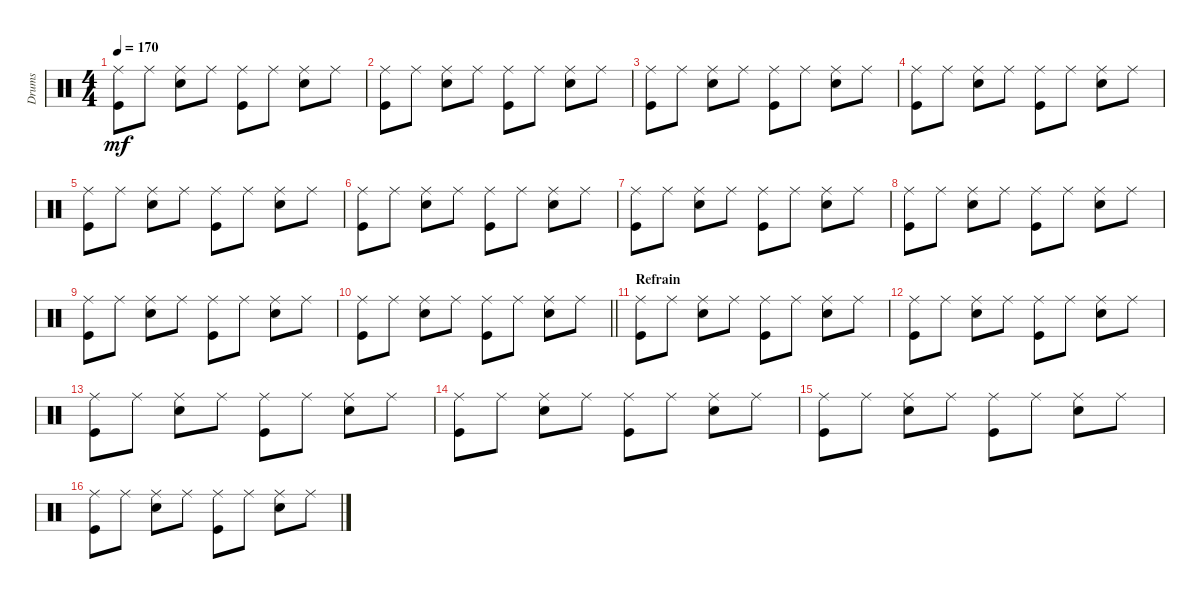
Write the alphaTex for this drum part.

\track ("Drums" "Drums") {instrument percussion}
\staff {score}
\articulation defaults
\ts (4 4)
\tempo 170
\clef neutral
\ks c
("Ride (middle)" "Kick (hit)").8{dy mf} "Ride (middle)".8 ("Ride (middle)" "Snare (hit) 2").8 "Ride (middle)".8 ("Ride (middle)" "Kick (hit)").8 "Ride (middle)".8 ("Ride (middle)" "Snare (hit) 2").8 "Ride (middle)".8 |
("Ride (middle)" "Kick (hit)").8 "Ride (middle)".8 ("Ride (middle)" "Snare (hit) 2").8 "Ride (middle)".8 ("Ride (middle)" "Kick (hit)").8 "Ride (middle)".8 ("Ride (middle)" "Snare (hit) 2").8 "Ride (middle)".8 |
("Ride (middle)" "Kick (hit)").8 "Ride (middle)".8 ("Ride (middle)" "Snare (hit) 2").8 "Ride (middle)".8 ("Ride (middle)" "Kick (hit)").8 "Ride (middle)".8 ("Ride (middle)" "Snare (hit) 2").8 "Ride (middle)".8 |
("Ride (middle)" "Kick (hit)").8 "Ride (middle)".8 ("Ride (middle)" "Snare (hit) 2").8 "Ride (middle)".8 ("Ride (middle)" "Kick (hit)").8 "Ride (middle)".8 ("Ride (middle)" "Snare (hit) 2").8 "Ride (middle)".8 |
("Ride (middle)" "Kick (hit)").8 "Ride (middle)".8 ("Ride (middle)" "Snare (hit) 2").8 "Ride (middle)".8 ("Ride (middle)" "Kick (hit)").8 "Ride (middle)".8 ("Ride (middle)" "Snare (hit) 2").8 "Ride (middle)".8 |
("Ride (middle)" "Kick (hit)").8 "Ride (middle)".8 ("Ride (middle)" "Snare (hit) 2").8 "Ride (middle)".8 ("Ride (middle)" "Kick (hit)").8 "Ride (middle)".8 ("Ride (middle)" "Snare (hit) 2").8 "Ride (middle)".8 |
("Ride (middle)" "Kick (hit)").8 "Ride (middle)".8 ("Ride (middle)" "Snare (hit) 2").8 "Ride (middle)".8 ("Ride (middle)" "Kick (hit)").8 "Ride (middle)".8 ("Ride (middle)" "Snare (hit) 2").8 "Ride (middle)".8 |
("Ride (middle)" "Kick (hit)").8 "Ride (middle)".8 ("Ride (middle)" "Snare (hit) 2").8 "Ride (middle)".8 ("Ride (middle)" "Kick (hit)").8 "Ride (middle)".8 ("Ride (middle)" "Snare (hit) 2").8 "Ride (middle)".8 |
("Ride (middle)" "Kick (hit)").8 "Ride (middle)".8 ("Ride (middle)" "Snare (hit) 2").8 "Ride (middle)".8 ("Ride (middle)" "Kick (hit)").8 "Ride (middle)".8 ("Ride (middle)" "Snare (hit) 2").8 "Ride (middle)".8 |
\barLineRight lightlight
("Ride (middle)" "Kick (hit)").8 "Ride (middle)".8 ("Ride (middle)" "Snare (hit) 2").8 "Ride (middle)".8 ("Ride (middle)" "Kick (hit)").8 "Ride (middle)".8 ("Ride (middle)" "Snare (hit) 2").8 "Ride (middle)".8 |
\section ("" "Refrain")
("Ride (middle)" "Kick (hit)").8 "Ride (middle)".8 ("Ride (middle)" "Snare (hit) 2").8 "Ride (middle)".8 ("Ride (middle)" "Kick (hit)").8 "Ride (middle)".8 ("Ride (middle)" "Snare (hit) 2").8 "Ride (middle)".8 |
("Ride (middle)" "Kick (hit)").8 "Ride (middle)".8 ("Ride (middle)" "Snare (hit) 2").8 "Ride (middle)".8 ("Ride (middle)" "Kick (hit)").8 "Ride (middle)".8 ("Ride (middle)" "Snare (hit) 2").8 "Ride (middle)".8 |
("Ride (middle)" "Kick (hit)").8 "Ride (middle)".8 ("Ride (middle)" "Snare (hit) 2").8 "Ride (middle)".8 ("Ride (middle)" "Kick (hit)").8 "Ride (middle)".8 ("Ride (middle)" "Snare (hit) 2").8 "Ride (middle)".8 |
("Ride (middle)" "Kick (hit)").8 "Ride (middle)".8 ("Ride (middle)" "Snare (hit) 2").8 "Ride (middle)".8 ("Ride (middle)" "Kick (hit)").8 "Ride (middle)".8 ("Ride (middle)" "Snare (hit) 2").8 "Ride (middle)".8 |
("Ride (middle)" "Kick (hit)").8 "Ride (middle)".8 ("Ride (middle)" "Snare (hit) 2").8 "Ride (middle)".8 ("Ride (middle)" "Kick (hit)").8 "Ride (middle)".8 ("Ride (middle)" "Snare (hit) 2").8 "Ride (middle)".8 |
("Ride (middle)" "Kick (hit)").8 "Ride (middle)".8 ("Ride (middle)" "Snare (hit) 2").8 "Ride (middle)".8 ("Ride (middle)" "Kick (hit)").8 "Ride (middle)".8 ("Ride (middle)" "Snare (hit) 2").8 "Ride (middle)".8
